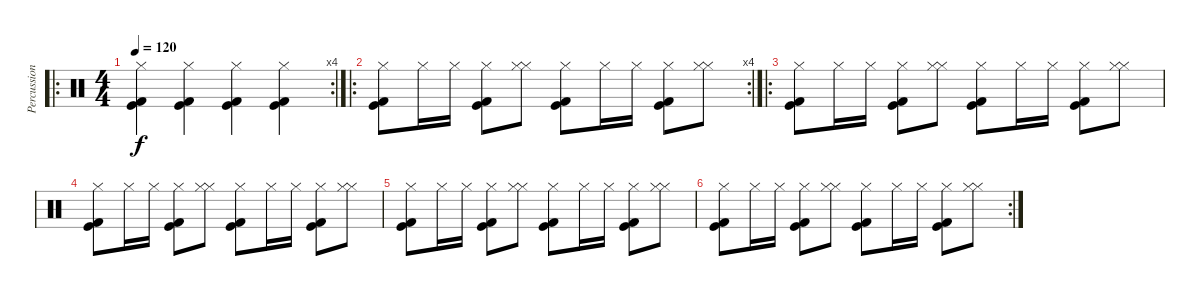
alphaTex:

\track ("Percussions" "Percussion") {instrument percussion}
\staff {score}
\articulation defaults
\ro
\rc 4
\ts (4 4)
\tempo 120
\clef neutral
\ks c
("Kick (hit) 2" "Kick (hit)" "Hi-Hat (closed)").4{dy f} ("Kick (hit) 2" "Kick (hit)" "Hi-Hat (closed)").4 ("Kick (hit) 2" "Kick (hit)" "Hi-Hat (closed)").4 ("Kick (hit) 2" "Kick (hit)" "Hi-Hat (closed)").4 |
\ro
\rc 4
("Kick (hit) 2" "Kick (hit)" "Hi-Hat (closed)").8 "Hi-Hat (closed)".16 "Hi-Hat (closed)".16 ("Kick (hit) 2" "Kick (hit)" "Hi-Hat (closed)").8 ("Hi-Hat (closed)" "Hi-Hat (closed)").8 ("Kick (hit) 2" "Kick (hit)" "Hi-Hat (closed)").8 "Hi-Hat (closed)".16 "Hi-Hat (closed)".16 ("Kick (hit) 2" "Kick (hit)" "Hi-Hat (closed)").8 ("Hi-Hat (closed)" "Hi-Hat (closed)").8 |
\ro
("Kick (hit) 2" "Kick (hit)" "Hi-Hat (closed)").8 "Hi-Hat (closed)".16 "Hi-Hat (closed)".16 ("Kick (hit) 2" "Kick (hit)" "Hi-Hat (closed)").8 ("Hi-Hat (closed)" "Hi-Hat (closed)").8 ("Kick (hit) 2" "Kick (hit)" "Hi-Hat (closed)").8 "Hi-Hat (closed)".16 "Hi-Hat (closed)".16 ("Kick (hit) 2" "Kick (hit)" "Hi-Hat (closed)").8 ("Hi-Hat (closed)" "Hi-Hat (closed)").8 |
("Kick (hit) 2" "Kick (hit)" "Hi-Hat (closed)").8 "Hi-Hat (closed)".16 "Hi-Hat (closed)".16 ("Kick (hit) 2" "Kick (hit)" "Hi-Hat (closed)").8 ("Hi-Hat (closed)" "Hi-Hat (closed)").8 ("Kick (hit) 2" "Kick (hit)" "Hi-Hat (closed)").8 "Hi-Hat (closed)".16 "Hi-Hat (closed)".16 ("Kick (hit) 2" "Kick (hit)" "Hi-Hat (closed)").8 ("Hi-Hat (closed)" "Hi-Hat (closed)").8 |
("Kick (hit) 2" "Kick (hit)" "Hi-Hat (closed)").8 "Hi-Hat (closed)".16 "Hi-Hat (closed)".16 ("Kick (hit) 2" "Kick (hit)" "Hi-Hat (closed)").8 ("Hi-Hat (closed)" "Hi-Hat (closed)").8 ("Kick (hit) 2" "Kick (hit)" "Hi-Hat (closed)").8 "Hi-Hat (closed)".16 "Hi-Hat (closed)".16 ("Kick (hit) 2" "Kick (hit)" "Hi-Hat (closed)").8 ("Hi-Hat (closed)" "Hi-Hat (closed)").8 |
\rc 2
("Kick (hit) 2" "Kick (hit)" "Hi-Hat (closed)").8 "Hi-Hat (closed)".16 "Hi-Hat (closed)".16 ("Kick (hit) 2" "Kick (hit)" "Hi-Hat (closed)").8 ("Hi-Hat (closed)" "Hi-Hat (closed)").8 ("Kick (hit) 2" "Kick (hit)" "Hi-Hat (closed)").8 "Hi-Hat (closed)".16 "Hi-Hat (closed)".16 ("Kick (hit) 2" "Kick (hit)" "Hi-Hat (closed)").8 ("Hi-Hat (closed)" "Hi-Hat (closed)").8
